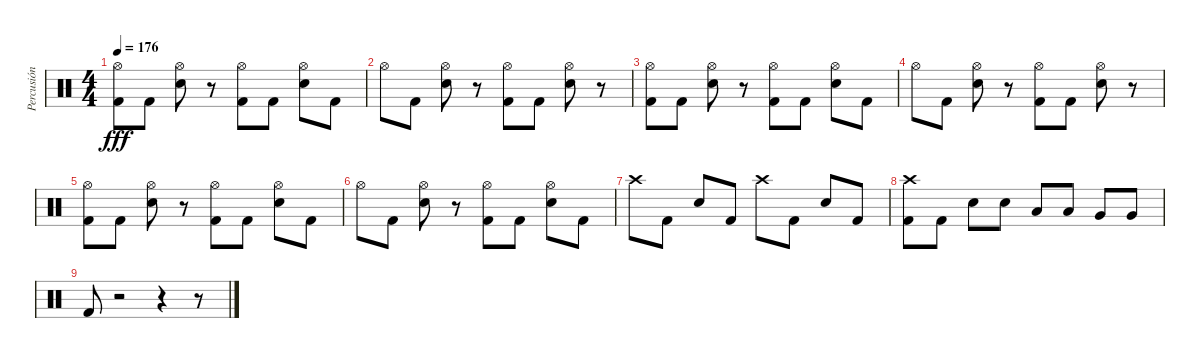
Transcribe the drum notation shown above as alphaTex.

\track ("Percusión" "Percusión") {instrument percussion}
\staff {score}
\articulation defaults
\ts (4 4)
\tempo 176
\clef neutral
\ks c
("Hi-Hat (open)" "Kick (hit) 2").8{dy fff} "Kick (hit) 2".8 ("Hi-Hat (open)" "Electric Snare (hit)").8 r.8 ("Hi-Hat (open)" "Kick (hit) 2").8 "Kick (hit) 2".8 ("Hi-Hat (open)" "Electric Snare (hit)").8 "Kick (hit) 2".8 |
"Hi-Hat (open)".8 "Kick (hit) 2".8 ("Hi-Hat (open)" "Electric Snare (hit)").8 r.8 ("Hi-Hat (open)" "Kick (hit) 2").8 "Kick (hit) 2".8 ("Hi-Hat (open)" "Electric Snare (hit)").8 r.8 |
("Hi-Hat (open)" "Kick (hit) 2").8 "Kick (hit) 2".8 ("Hi-Hat (open)" "Electric Snare (hit)").8 r.8 ("Hi-Hat (open)" "Kick (hit) 2").8 "Kick (hit) 2".8 ("Hi-Hat (open)" "Electric Snare (hit)").8 "Kick (hit) 2".8 |
"Hi-Hat (open)".8 "Kick (hit) 2".8 ("Hi-Hat (open)" "Electric Snare (hit)").8 r.8 ("Hi-Hat (open)" "Kick (hit) 2").8 "Kick (hit) 2".8 ("Hi-Hat (open)" "Electric Snare (hit)").8 r.8 |
("Hi-Hat (open)" "Kick (hit) 2").8 "Kick (hit) 2".8 ("Hi-Hat (open)" "Electric Snare (hit)").8 r.8 ("Hi-Hat (open)" "Kick (hit) 2").8 "Kick (hit) 2".8 ("Hi-Hat (open)" "Electric Snare (hit)").8 "Kick (hit) 2".8 |
"Hi-Hat (open)".8 "Kick (hit) 2".8 ("Hi-Hat (open)" "Electric Snare (hit)").8 r.8 ("Hi-Hat (open)" "Kick (hit) 2").8 "Kick (hit) 2".8 ("Hi-Hat (open)" "Electric Snare (hit)").8 "Kick (hit) 2".8 |
"Crash high (hit)".8 "Kick (hit) 2".8 "Electric Snare (hit)".8 "Kick (hit) 2".8 "Crash high (hit)".8 "Kick (hit) 2".8 "Electric Snare (hit)".8 "Kick (hit) 2".8 |
("Crash high (hit)" "Kick (hit) 2").8 "Kick (hit) 2".8 "Electric Snare (hit)".8 "Electric Snare (hit)".8 "Low Tom (hit)".8 "Low Tom (hit)".8 "Very Low Tom (hit)".8 "Very Low Tom (hit)".8 |
"Kick (hit) 2".8 r.2 r.4 r.8
